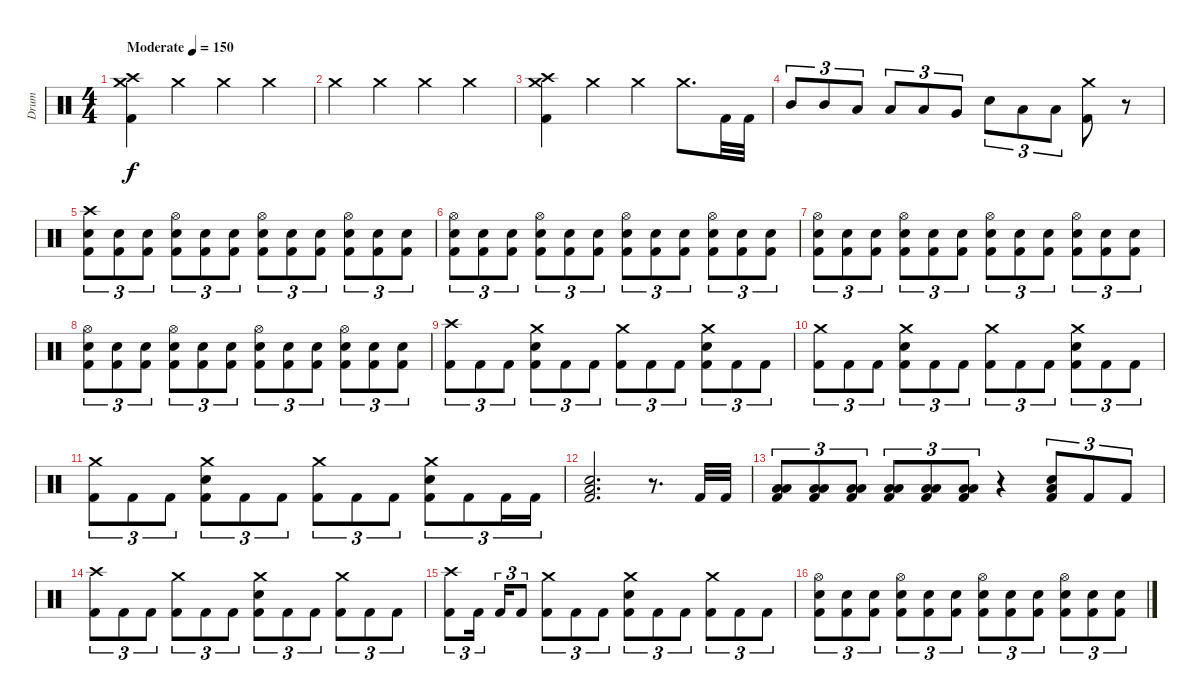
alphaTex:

\track ("Drum" "Drum") {instrument percussion}
\staff {score}
\articulation defaults
\ts (4 4)
\tempo (150 "Moderate")
\clef neutral
\ks c
("Crash high (hit)" "Crash medium (hit)" "Kick (hit) 2").4{dy f} "Crash medium (hit)".4 "Crash medium (hit)".4 "Crash medium (hit)".4 |
"Crash medium (hit)".4 "Crash medium (hit)".4 "Crash medium (hit)".4 "Crash medium (hit)".4 |
("Crash high (hit)" "Crash medium (hit)" "Kick (hit) 2").4 "Crash medium (hit)".4 "Crash medium (hit)".4 "Crash medium (hit)".8{d} "Kick (hit) 2".32 "Kick (hit) 2".32 |
"Mid Tom (hit)".8{tu (3 2)} "Mid Tom (hit)".8{tu (3 2)} "Low Tom (hit)".8{tu (3 2)} "Low Tom (hit)".8{tu (3 2)} "Low Tom (hit)".8{tu (3 2)} "Very Low Tom (hit)".8{tu (3 2)} "Electric Snare (hit)".8{tu (3 2)} "Low Floor Tom (hit)".8{tu (3 2)} "Low Floor Tom (hit)".8{tu (3 2)} ("Crash medium (hit)" "Kick (hit) 2").8 r.8{volume 0} |
("Crash high (hit)" "Electric Snare (hit)" "Kick (hit) 2").8{tu (3 2) volume 13} ("Electric Snare (hit)" "Kick (hit) 2").8{tu (3 2)} ("Electric Snare (hit)" "Kick (hit) 2").8{tu (3 2)} ("Hi-Hat (open)" "Electric Snare (hit)" "Kick (hit) 2").8{tu (3 2)} ("Electric Snare (hit)" "Kick (hit) 2").8{tu (3 2)} ("Electric Snare (hit)" "Kick (hit) 2").8{tu (3 2)} ("Hi-Hat (open)" "Electric Snare (hit)" "Kick (hit) 2").8{tu (3 2)} ("Electric Snare (hit)" "Kick (hit) 2").8{tu (3 2)} ("Electric Snare (hit)" "Kick (hit) 2").8{tu (3 2)} ("Hi-Hat (open)" "Electric Snare (hit)" "Kick (hit) 2").8{tu (3 2)} ("Electric Snare (hit)" "Kick (hit) 2").8{tu (3 2)} ("Electric Snare (hit)" "Kick (hit) 2").8{tu (3 2)} |
("Hi-Hat (open)" "Electric Snare (hit)" "Kick (hit) 2").8{tu (3 2)} ("Electric Snare (hit)" "Kick (hit) 2").8{tu (3 2)} ("Electric Snare (hit)" "Kick (hit) 2").8{tu (3 2)} ("Hi-Hat (open)" "Electric Snare (hit)" "Kick (hit) 2").8{tu (3 2)} ("Electric Snare (hit)" "Kick (hit) 2").8{tu (3 2)} ("Electric Snare (hit)" "Kick (hit) 2").8{tu (3 2)} ("Hi-Hat (open)" "Electric Snare (hit)" "Kick (hit) 2").8{tu (3 2)} ("Electric Snare (hit)" "Kick (hit) 2").8{tu (3 2)} ("Electric Snare (hit)" "Kick (hit) 2").8{tu (3 2)} ("Hi-Hat (open)" "Electric Snare (hit)" "Kick (hit) 2").8{tu (3 2)} ("Electric Snare (hit)" "Kick (hit) 2").8{tu (3 2)} ("Electric Snare (hit)" "Kick (hit) 2").8{tu (3 2)} |
("Hi-Hat (open)" "Electric Snare (hit)" "Kick (hit) 2").8{tu (3 2)} ("Electric Snare (hit)" "Kick (hit) 2").8{tu (3 2)} ("Electric Snare (hit)" "Kick (hit) 2").8{tu (3 2)} ("Hi-Hat (open)" "Electric Snare (hit)" "Kick (hit) 2").8{tu (3 2)} ("Electric Snare (hit)" "Kick (hit) 2").8{tu (3 2)} ("Electric Snare (hit)" "Kick (hit) 2").8{tu (3 2)} ("Hi-Hat (open)" "Electric Snare (hit)" "Kick (hit) 2").8{tu (3 2)} ("Electric Snare (hit)" "Kick (hit) 2").8{tu (3 2)} ("Electric Snare (hit)" "Kick (hit) 2").8{tu (3 2)} ("Hi-Hat (open)" "Electric Snare (hit)" "Kick (hit) 2").8{tu (3 2)} ("Electric Snare (hit)" "Kick (hit) 2").8{tu (3 2)} ("Electric Snare (hit)" "Kick (hit) 2").8{tu (3 2)} |
("Hi-Hat (open)" "Electric Snare (hit)" "Kick (hit) 2").8{tu (3 2)} ("Electric Snare (hit)" "Kick (hit) 2").8{tu (3 2)} ("Electric Snare (hit)" "Kick (hit) 2").8{tu (3 2)} ("Hi-Hat (open)" "Electric Snare (hit)" "Kick (hit) 2").8{tu (3 2)} ("Electric Snare (hit)" "Kick (hit) 2").8{tu (3 2)} ("Electric Snare (hit)" "Kick (hit) 2").8{tu (3 2)} ("Hi-Hat (open)" "Electric Snare (hit)" "Kick (hit) 2").8{tu (3 2)} ("Electric Snare (hit)" "Kick (hit) 2").8{tu (3 2)} ("Electric Snare (hit)" "Kick (hit) 2").8{tu (3 2)} ("Hi-Hat (open)" "Electric Snare (hit)" "Kick (hit) 2").8{tu (3 2)} ("Electric Snare (hit)" "Kick (hit) 2").8{tu (3 2)} ("Electric Snare (hit)" "Kick (hit) 2").8{tu (3 2)} |
("Crash high (hit)" "Kick (hit) 2").8{tu (3 2)} "Kick (hit) 2".8{tu (3 2)} "Kick (hit) 2".8{tu (3 2)} ("Crash medium (hit)" "Electric Snare (hit)" "Kick (hit) 2").8{tu (3 2)} "Kick (hit) 2".8{tu (3 2)} "Kick (hit) 2".8{tu (3 2)} ("Crash medium (hit)" "Kick (hit) 2").8{tu (3 2)} "Kick (hit) 2".8{tu (3 2)} "Kick (hit) 2".8{tu (3 2)} ("Crash medium (hit)" "Electric Snare (hit)" "Kick (hit) 2").8{tu (3 2)} "Kick (hit) 2".8{tu (3 2)} "Kick (hit) 2".8{tu (3 2)} |
("Crash medium (hit)" "Kick (hit) 2").8{tu (3 2)} "Kick (hit) 2".8{tu (3 2)} "Kick (hit) 2".8{tu (3 2)} ("Crash medium (hit)" "Electric Snare (hit)" "Kick (hit) 2").8{tu (3 2)} "Kick (hit) 2".8{tu (3 2)} "Kick (hit) 2".8{tu (3 2)} ("Crash medium (hit)" "Kick (hit) 2").8{tu (3 2)} "Kick (hit) 2".8{tu (3 2)} "Kick (hit) 2".8{tu (3 2)} ("Crash medium (hit)" "Electric Snare (hit)" "Kick (hit) 2").8{tu (3 2)} "Kick (hit) 2".8{tu (3 2)} "Kick (hit) 2".8{tu (3 2)} |
("Crash medium (hit)" "Kick (hit) 2").8{tu (3 2)} "Kick (hit) 2".8{tu (3 2)} "Kick (hit) 2".8{tu (3 2)} ("Crash medium (hit)" "Electric Snare (hit)" "Kick (hit) 2").8{tu (3 2)} "Kick (hit) 2".8{tu (3 2)} "Kick (hit) 2".8{tu (3 2)} ("Crash medium (hit)" "Kick (hit) 2").8{tu (3 2)} "Kick (hit) 2".8{tu (3 2)} "Kick (hit) 2".8{tu (3 2)} ("Crash medium (hit)" "Electric Snare (hit)" "Kick (hit) 2").8{tu (3 2)} "Kick (hit) 2".8{tu (3 2)} "Kick (hit) 2".16{tu (3 2)} "Kick (hit) 2".16{tu (3 2)} |
("Electric Snare (hit)" "Low Floor Tom (hit)" "Kick (hit) 2").2{d} r.8{d} "Kick (hit) 2".32 "Kick (hit) 2".32 |
("Low Tom (hit)" "Low Floor Tom (hit)" "Kick (hit) 2").8{tu (3 2)} ("Low Tom (hit)" "Low Floor Tom (hit)" "Kick (hit) 2").8{tu (3 2)} ("Low Tom (hit)" "Low Floor Tom (hit)" "Kick (hit) 2").8{tu (3 2)} ("Low Tom (hit)" "Low Floor Tom (hit)" "Kick (hit) 2").8{tu (3 2)} ("Low Tom (hit)" "Low Floor Tom (hit)" "Kick (hit) 2").8{tu (3 2)} ("Low Tom (hit)" "Low Floor Tom (hit)" "Kick (hit) 2").8{tu (3 2)} r.4 ("Electric Snare (hit)" "Low Floor Tom (hit)" "Kick (hit) 2").8{tu (3 2)} "Kick (hit) 2".8{tu (3 2)} "Kick (hit) 2".8{tu (3 2)} |
("Crash high (hit)" "Kick (hit) 2").8{tu (3 2)} "Kick (hit) 2".8{tu (3 2)} "Kick (hit) 2".8{tu (3 2)} ("Crash medium (hit)" "Kick (hit) 2").8{tu (3 2)} "Kick (hit) 2".8{tu (3 2)} "Kick (hit) 2".8{tu (3 2)} ("Crash medium (hit)" "Electric Snare (hit)" "Kick (hit) 2").8{tu (3 2)} "Kick (hit) 2".8{tu (3 2)} "Kick (hit) 2".8{tu (3 2)} ("Crash medium (hit)" "Kick (hit) 2").8{tu (3 2)} "Kick (hit) 2".8{tu (3 2)} "Kick (hit) 2".8{tu (3 2)} |
("Crash high (hit)" "Kick (hit) 2").8{tu (3 2)} "Kick (hit) 2".16{tu (3 2) beam splitsecondary} "Kick (hit) 2".16{tu (3 2)} "Kick (hit) 2".8{tu (3 2)} ("Crash medium (hit)" "Kick (hit) 2").8{tu (3 2)} "Kick (hit) 2".8{tu (3 2)} "Kick (hit) 2".8{tu (3 2)} ("Crash medium (hit)" "Electric Snare (hit)" "Kick (hit) 2").8{tu (3 2)} "Kick (hit) 2".8{tu (3 2)} "Kick (hit) 2".8{tu (3 2)} ("Crash medium (hit)" "Kick (hit) 2").8{tu (3 2)} "Kick (hit) 2".8{tu (3 2)} "Kick (hit) 2".8{tu (3 2)} |
("Hi-Hat (open)" "Electric Snare (hit)" "Kick (hit) 2").8{tu (3 2) volume 13} ("Electric Snare (hit)" "Kick (hit) 2").8{tu (3 2)} ("Electric Snare (hit)" "Kick (hit) 2").8{tu (3 2)} ("Hi-Hat (open)" "Electric Snare (hit)" "Kick (hit) 2").8{tu (3 2)} ("Electric Snare (hit)" "Kick (hit) 2").8{tu (3 2)} ("Electric Snare (hit)" "Kick (hit) 2").8{tu (3 2)} ("Hi-Hat (open)" "Electric Snare (hit)" "Kick (hit) 2").8{tu (3 2)} ("Electric Snare (hit)" "Kick (hit) 2").8{tu (3 2)} ("Electric Snare (hit)" "Kick (hit) 2").8{tu (3 2)} ("Hi-Hat (open)" "Electric Snare (hit)" "Kick (hit) 2").8{tu (3 2)} ("Electric Snare (hit)" "Kick (hit) 2").8{tu (3 2)} ("Electric Snare (hit)" "Kick (hit) 2").8{tu (3 2)}
